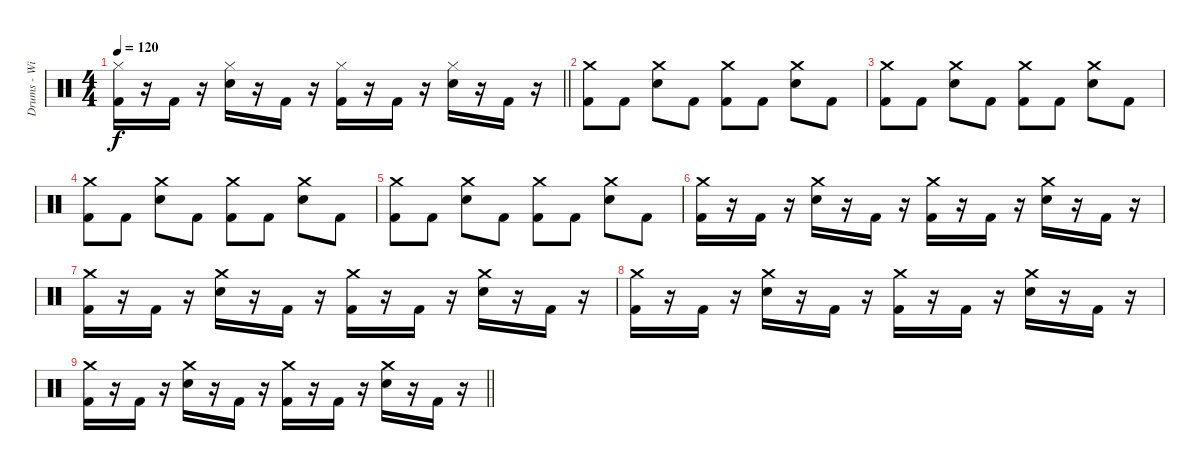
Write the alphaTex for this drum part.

\track ("Drums - Willi Wurm" "Drums - Wi") {instrument percussion}
\staff {score}
\articulation defaults
\ts (4 4)
\tempo 120
\clef neutral
\barLineRight lightlight
\ks c
("Hi-Hat (closed)" "Kick (hit) 2").16{dy f} r.16 "Kick (hit) 2".16 r.16 ("Hi-Hat (closed)" "Snare (hit) 2").16 r.16 "Kick (hit) 2".16 r.16 ("Hi-Hat (closed)" "Kick (hit) 2").16 r.16 "Kick (hit) 2".16 r.16 ("Hi-Hat (closed)" "Snare (hit) 2").16 r.16 "Kick (hit) 2".16 r.16 |
("Crash medium (hit)" "Kick (hit) 2").8 "Kick (hit) 2".8 ("Crash medium (hit)" "Snare (hit) 2").8 "Kick (hit) 2".8 ("Crash medium (hit)" "Kick (hit) 2").8 "Kick (hit) 2".8 ("Crash medium (hit)" "Snare (hit) 2").8 "Kick (hit) 2".8 |
("Crash medium (hit)" "Kick (hit) 2").8 "Kick (hit) 2".8 ("Crash medium (hit)" "Snare (hit) 2").8 "Kick (hit) 2".8 ("Crash medium (hit)" "Kick (hit) 2").8 "Kick (hit) 2".8 ("Crash medium (hit)" "Snare (hit) 2").8 "Kick (hit) 2".8 |
("Crash medium (hit)" "Kick (hit) 2").8 "Kick (hit) 2".8 ("Crash medium (hit)" "Snare (hit) 2").8 "Kick (hit) 2".8 ("Crash medium (hit)" "Kick (hit) 2").8 "Kick (hit) 2".8 ("Crash medium (hit)" "Snare (hit) 2").8 "Kick (hit) 2".8 |
("Crash medium (hit)" "Kick (hit) 2").8 "Kick (hit) 2".8 ("Crash medium (hit)" "Snare (hit) 2").8 "Kick (hit) 2".8 ("Crash medium (hit)" "Kick (hit) 2").8 "Kick (hit) 2".8 ("Crash medium (hit)" "Snare (hit) 2").8 "Kick (hit) 2".8 |
("Crash medium (hit)" "Kick (hit) 2").16 r.16 "Kick (hit) 2".16 r.16 ("Crash medium (hit)" "Snare (hit) 2").16 r.16 "Kick (hit) 2".16 r.16 ("Crash medium (hit)" "Kick (hit) 2").16 r.16 "Kick (hit) 2".16 r.16 ("Crash medium (hit)" "Snare (hit) 2").16 r.16 "Kick (hit) 2".16 r.16 |
("Crash medium (hit)" "Kick (hit) 2").16 r.16 "Kick (hit) 2".16 r.16 ("Crash medium (hit)" "Snare (hit) 2").16 r.16 "Kick (hit) 2".16 r.16 ("Crash medium (hit)" "Kick (hit) 2").16 r.16 "Kick (hit) 2".16 r.16 ("Crash medium (hit)" "Snare (hit) 2").16 r.16 "Kick (hit) 2".16 r.16 |
("Crash medium (hit)" "Kick (hit) 2").16 r.16 "Kick (hit) 2".16 r.16 ("Crash medium (hit)" "Snare (hit) 2").16 r.16 "Kick (hit) 2".16 r.16 ("Crash medium (hit)" "Kick (hit) 2").16 r.16 "Kick (hit) 2".16 r.16 ("Crash medium (hit)" "Snare (hit) 2").16 r.16 "Kick (hit) 2".16 r.16 |
\barLineRight lightlight
("Crash medium (hit)" "Kick (hit) 2").16 r.16 "Kick (hit) 2".16 r.16 ("Crash medium (hit)" "Snare (hit) 2").16 r.16 "Kick (hit) 2".16 r.16 ("Crash medium (hit)" "Kick (hit) 2").16 r.16 "Kick (hit) 2".16 r.16 ("Crash medium (hit)" "Snare (hit) 2").16 r.16 "Kick (hit) 2".16 r.16
